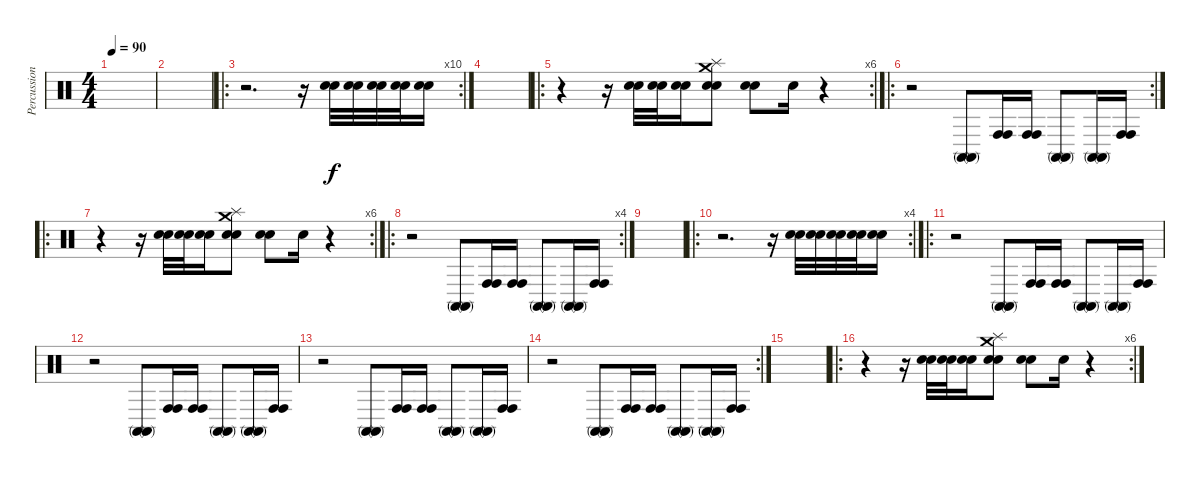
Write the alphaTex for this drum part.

\track ("Percussions" "Percussion") {instrument percussion}
\staff {score}
\articulation defaults
\ts (4 4)
\tempo 90
\clef neutral
\ks c
|
|
\ro
\rc 10
r.2{d} r.16 ("Snare (hit) 2" "Snare (hit) 2").32 ("Snare (hit) 2" "Snare (hit) 2").32 ("Snare (hit) 2" "Snare (hit) 2").32 ("Snare (hit) 2" "Snare (hit) 2").32 ("Snare (hit) 2" "Snare (hit) 2").16 |
|
\ro
\rc 6
r.4 r.16 ("Snare (hit) 2" "Snare (hit) 2").32 ("Snare (hit) 2" "Snare (hit) 2").32 ("Snare (hit) 2" "Snare (hit) 2").16 ("Splash (hit)" "Snare (hit) 2" "Snare (hit) 2" "Crash medium (hit)").8 ("Snare (hit) 2" "Snare (hit) 2").8 "Snare (hit) 2".16 r.4 |
\ro
\rc 2
r.2 ("Conga high (mute)" "Conga high (mute)").8 ("Conga high (hit)" "Conga high (hit)").16 ("Conga high (hit)" "Conga high (hit)").16 ("Conga high (mute)" "Conga high (mute)").8 ("Conga high (mute)" "Conga high (mute)").16 ("Conga high (hit)" "Conga high (hit)").16 |
\ro
\rc 6
r.4 r.16 ("Snare (hit) 2" "Snare (hit) 2").32 ("Snare (hit) 2" "Snare (hit) 2").32 ("Snare (hit) 2" "Snare (hit) 2").16 ("Splash (hit)" "Snare (hit) 2" "Snare (hit) 2" "Crash medium (hit)").8 ("Snare (hit) 2" "Snare (hit) 2").8 "Snare (hit) 2".16 r.4 |
\ro
\rc 4
r.2 ("Conga high (mute)" "Conga high (mute)").8 ("Conga high (hit)" "Conga high (hit)").16 ("Conga high (hit)" "Conga high (hit)").16 ("Conga high (mute)" "Conga high (mute)").8 ("Conga high (mute)" "Conga high (mute)").16 ("Conga high (hit)" "Conga high (hit)").16 |
|
\ro
\rc 4
r.2{d} r.16 ("Snare (hit) 2" "Snare (hit) 2").32 ("Snare (hit) 2" "Snare (hit) 2").32 ("Snare (hit) 2" "Snare (hit) 2").32 ("Snare (hit) 2" "Snare (hit) 2").32 ("Snare (hit) 2" "Snare (hit) 2").16 |
\ro
r.2 ("Conga high (mute)" "Conga high (mute)").8 ("Conga high (hit)" "Conga high (hit)").16 ("Conga high (hit)" "Conga high (hit)").16 ("Conga high (mute)" "Conga high (mute)").8 ("Conga high (mute)" "Conga high (mute)").16 ("Conga high (hit)" "Conga high (hit)").16 |
r.2 ("Conga high (mute)" "Conga high (mute)").8 ("Conga high (hit)" "Conga high (hit)").16 ("Conga high (hit)" "Conga high (hit)").16 ("Conga high (mute)" "Conga high (mute)").8 ("Conga high (mute)" "Conga high (mute)").16 ("Conga high (hit)" "Conga high (hit)").16 |
r.2 ("Conga high (mute)" "Conga high (mute)").8 ("Conga high (hit)" "Conga high (hit)").16 ("Conga high (hit)" "Conga high (hit)").16 ("Conga high (mute)" "Conga high (mute)").8 ("Conga high (mute)" "Conga high (mute)").16 ("Conga high (hit)" "Conga high (hit)").16 |
\rc 2
r.2 ("Conga high (mute)" "Conga high (mute)").8 ("Conga high (hit)" "Conga high (hit)").16 ("Conga high (hit)" "Conga high (hit)").16 ("Conga high (mute)" "Conga high (mute)").8 ("Conga high (mute)" "Conga high (mute)").16 ("Conga high (hit)" "Conga high (hit)").16 |
|
\ro
\rc 6
r.4 r.16 ("Snare (hit) 2" "Snare (hit) 2").32 ("Snare (hit) 2" "Snare (hit) 2").32 ("Snare (hit) 2" "Snare (hit) 2").16 ("Splash (hit)" "Snare (hit) 2" "Snare (hit) 2" "Crash medium (hit)").8 ("Snare (hit) 2" "Snare (hit) 2").8 "Snare (hit) 2".16 r.4
